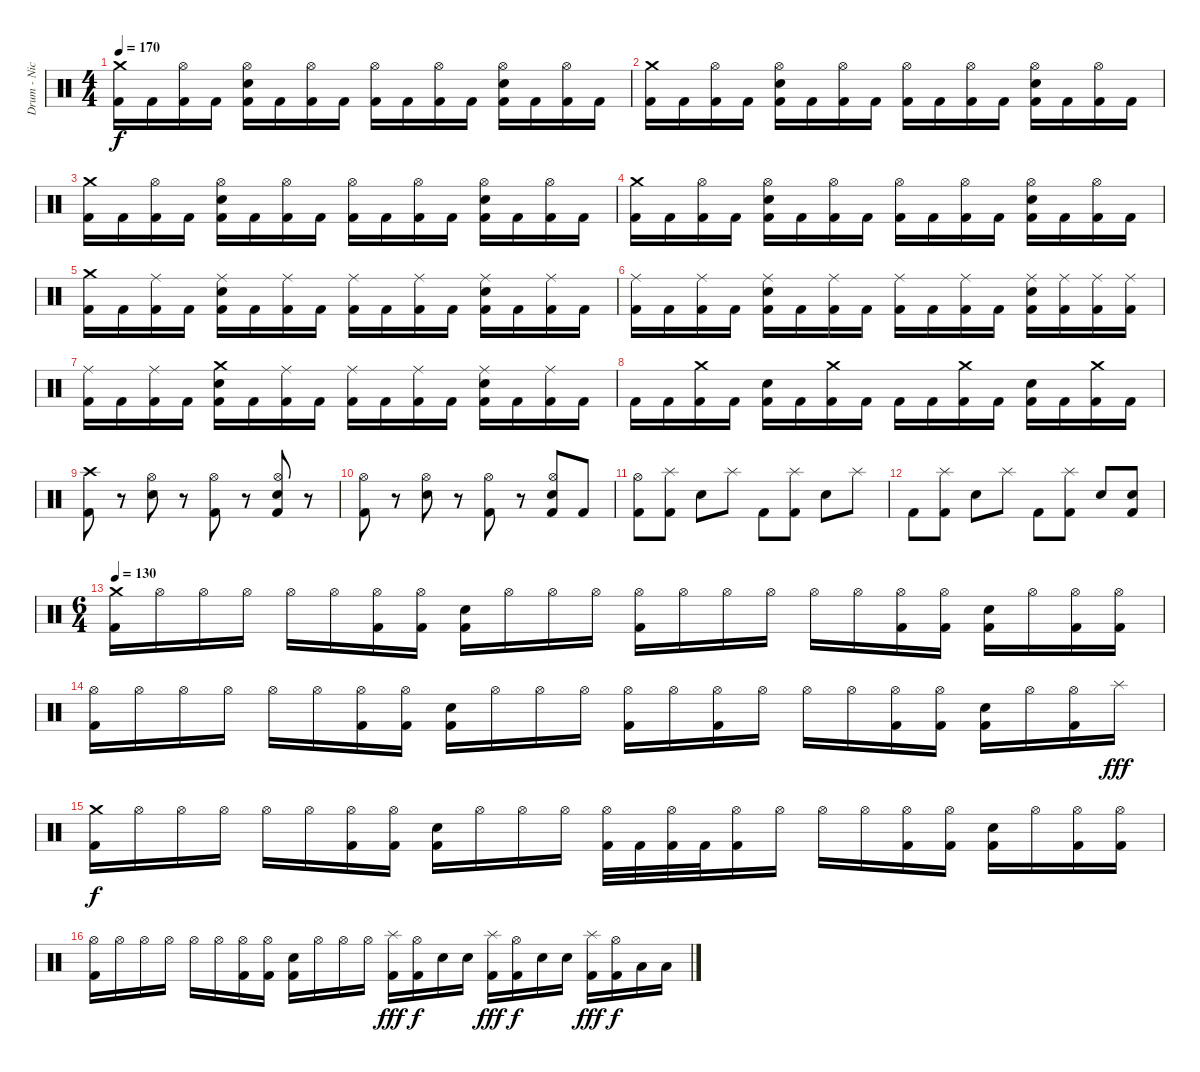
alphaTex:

\track ("Drum - Nicholas" "Drum - Nic") {instrument percussion}
\staff {score}
\articulation defaults
\ts (4 4)
\tempo 170
\clef neutral
\ks c
("Crash medium (hit)" "Kick (hit) 2").16{dy f} "Kick (hit) 2".16 ("Hi-Hat (open)" "Kick (hit) 2").16 "Kick (hit) 2".16 ("Hi-Hat (open)" "Snare (hit) 2" "Kick (hit) 2").16 "Kick (hit) 2".16 ("Hi-Hat (open)" "Kick (hit) 2").16 "Kick (hit) 2".16 ("Hi-Hat (open)" "Kick (hit) 2").16 "Kick (hit) 2".16 ("Hi-Hat (open)" "Kick (hit) 2").16 "Kick (hit) 2".16 ("Hi-Hat (open)" "Snare (hit) 2" "Kick (hit) 2").16 "Kick (hit) 2".16 ("Hi-Hat (open)" "Kick (hit) 2").16 "Kick (hit) 2".16 |
("Crash medium (hit)" "Kick (hit) 2").16 "Kick (hit) 2".16 ("Hi-Hat (open)" "Kick (hit) 2").16 "Kick (hit) 2".16 ("Hi-Hat (open)" "Snare (hit) 2" "Kick (hit) 2").16 "Kick (hit) 2".16 ("Hi-Hat (open)" "Kick (hit) 2").16 "Kick (hit) 2".16 ("Hi-Hat (open)" "Kick (hit) 2").16 "Kick (hit) 2".16 ("Hi-Hat (open)" "Kick (hit) 2").16 "Kick (hit) 2".16 ("Hi-Hat (open)" "Snare (hit) 2" "Kick (hit) 2").16 "Kick (hit) 2".16 ("Hi-Hat (open)" "Kick (hit) 2").16 "Kick (hit) 2".16 |
("Crash medium (hit)" "Kick (hit) 2").16 "Kick (hit) 2".16 ("Hi-Hat (open)" "Kick (hit) 2").16 "Kick (hit) 2".16 ("Hi-Hat (open)" "Snare (hit) 2" "Kick (hit) 2").16 "Kick (hit) 2".16 ("Hi-Hat (open)" "Kick (hit) 2").16 "Kick (hit) 2".16 ("Hi-Hat (open)" "Kick (hit) 2").16 "Kick (hit) 2".16 ("Hi-Hat (open)" "Kick (hit) 2").16 "Kick (hit) 2".16 ("Hi-Hat (open)" "Snare (hit) 2" "Kick (hit) 2").16 "Kick (hit) 2".16 ("Hi-Hat (open)" "Kick (hit) 2").16 "Kick (hit) 2".16 |
("Crash medium (hit)" "Kick (hit) 2").16 "Kick (hit) 2".16 ("Hi-Hat (open)" "Kick (hit) 2").16 "Kick (hit) 2".16 ("Hi-Hat (open)" "Snare (hit) 2" "Kick (hit) 2").16 "Kick (hit) 2".16 ("Hi-Hat (open)" "Kick (hit) 2").16 "Kick (hit) 2".16 ("Hi-Hat (open)" "Kick (hit) 2").16 "Kick (hit) 2".16 ("Hi-Hat (open)" "Kick (hit) 2").16 "Kick (hit) 2".16 ("Hi-Hat (open)" "Snare (hit) 2" "Kick (hit) 2").16 "Kick (hit) 2".16 ("Hi-Hat (open)" "Kick (hit) 2").16 "Kick (hit) 2".16 |
("Crash medium (hit)" "Kick (hit) 2").16 "Kick (hit) 2".16 ("Ride (middle)" "Kick (hit) 2").16 "Kick (hit) 2".16 ("Ride (middle)" "Snare (hit) 2" "Kick (hit) 2").16 "Kick (hit) 2".16 ("Ride (middle)" "Kick (hit) 2").16 "Kick (hit) 2".16 ("Ride (middle)" "Kick (hit) 2").16 "Kick (hit) 2".16 ("Ride (middle)" "Kick (hit) 2").16 "Kick (hit) 2".16 ("Ride (middle)" "Snare (hit) 2" "Kick (hit) 2").16 "Kick (hit) 2".16 ("Ride (middle)" "Kick (hit) 2").16 "Kick (hit) 2".16 |
("Ride (middle)" "Kick (hit) 2").16 "Kick (hit) 2".16 ("Ride (middle)" "Kick (hit) 2").16 "Kick (hit) 2".16 ("Ride (middle)" "Snare (hit) 2" "Kick (hit) 2").16 "Kick (hit) 2".16 ("Ride (middle)" "Kick (hit) 2").16 "Kick (hit) 2".16 ("Ride (middle)" "Kick (hit) 2").16 "Kick (hit) 2".16 ("Ride (middle)" "Kick (hit) 2").16 "Kick (hit) 2".16 ("Ride (middle)" "Snare (hit) 2" "Kick (hit) 2").16 ("Ride (middle)" "Kick (hit) 2").16 ("Ride (middle)" "Kick (hit) 2").16 ("Ride (middle)" "Kick (hit) 2").16 |
("Ride (middle)" "Kick (hit) 2").16 "Kick (hit) 2".16 ("Ride (middle)" "Kick (hit) 2").16 "Kick (hit) 2".16 ("Crash medium (hit)" "Snare (hit) 2" "Kick (hit) 2").16 "Kick (hit) 2".16 ("Ride (middle)" "Kick (hit) 2").16 "Kick (hit) 2".16 ("Ride (middle)" "Kick (hit) 2").16 "Kick (hit) 2".16 ("Ride (middle)" "Kick (hit) 2").16 "Kick (hit) 2".16 ("Ride (middle)" "Snare (hit) 2" "Kick (hit) 2").16 "Kick (hit) 2".16 ("Ride (middle)" "Kick (hit) 2").16 "Kick (hit) 2".16 |
"Kick (hit) 2".16 "Kick (hit) 2".16 ("Crash medium (hit)" "Kick (hit) 2").16 "Kick (hit) 2".16 ("Snare (hit) 2" "Kick (hit) 2").16 "Kick (hit) 2".16 ("Crash medium (hit)" "Kick (hit) 2").16 "Kick (hit) 2".16 "Kick (hit) 2".16 "Kick (hit) 2".16 ("Crash medium (hit)" "Kick (hit) 2").16 "Kick (hit) 2".16 ("Snare (hit) 2" "Kick (hit) 2").16 "Kick (hit) 2".16 ("Crash medium (hit)" "Kick (hit) 2").16 "Kick (hit) 2".16 |
("Crash high (hit)" "Kick (hit) 2").8 r.8 ("Hi-Hat (open)" "Snare (hit) 2").8 r.8 ("Hi-Hat (open)" "Kick (hit) 2").8 r.8 ("Hi-Hat (open)" "Snare (hit) 2" "Kick (hit) 2").8 r.8 |
("Hi-Hat (open)" "Kick (hit) 2").8 r.8 ("Hi-Hat (open)" "Snare (hit) 2").8 r.8 ("Hi-Hat (open)" "Kick (hit) 2").8 r.8 ("Hi-Hat (open)" "Snare (hit) 2" "Kick (hit) 2").8 "Kick (hit) 2".8 |
("Hi-Hat (open)" "Kick (hit) 2").8 ("Splash (hit)" "Kick (hit) 2").8 "Snare (hit) 2".8 "Splash (hit)".8 "Kick (hit) 2".8 ("Splash (hit)" "Kick (hit) 2").8 "Snare (hit) 2".8 "Splash (hit)".8 |
"Kick (hit) 2".8 ("Splash (hit)" "Kick (hit) 2").8 "Snare (hit) 2".8 "Splash (hit)".8 "Kick (hit) 2".8 ("Splash (hit)" "Kick (hit) 2").8 "Snare (hit) 2".8 ("Snare (hit)" "Kick (hit) 2").8 |
\ts (6 4)
\tempo 130
("Crash medium (hit)" "Kick (hit) 2").16 "Hi-Hat (open)".16 "Hi-Hat (open)".16 "Hi-Hat (open)".16 "Hi-Hat (open)".16 "Hi-Hat (open)".16 ("Hi-Hat (open)" "Kick (hit) 2").16 ("Hi-Hat (open)" "Kick (hit) 2").16 ("Snare (hit) 2" "Kick (hit) 2").16 "Hi-Hat (open)".16 "Hi-Hat (open)".16 "Hi-Hat (open)".16 ("Hi-Hat (open)" "Kick (hit) 2").16 "Hi-Hat (open)".16 "Hi-Hat (open)".16 "Hi-Hat (open)".16 "Hi-Hat (open)".16 "Hi-Hat (open)".16 ("Hi-Hat (open)" "Kick (hit) 2").16 ("Hi-Hat (open)" "Kick (hit) 2").16 ("Snare (hit) 2" "Kick (hit) 2").16 "Hi-Hat (open)".16 ("Hi-Hat (open)" "Kick (hit) 2").16 ("Hi-Hat (open)" "Kick (hit) 2").16 |
("Hi-Hat (open)" "Kick (hit) 2").16 "Hi-Hat (open)".16 "Hi-Hat (open)".16 "Hi-Hat (open)".16 "Hi-Hat (open)".16 "Hi-Hat (open)".16 ("Hi-Hat (open)" "Kick (hit) 2").16 ("Hi-Hat (open)" "Kick (hit) 2").16 ("Snare (hit) 2" "Kick (hit) 2").16 "Hi-Hat (open)".16 "Hi-Hat (open)".16 "Hi-Hat (open)".16 ("Hi-Hat (open)" "Kick (hit) 2").16 "Hi-Hat (open)".16 ("Hi-Hat (open)" "Kick (hit) 2").16 "Hi-Hat (open)".16 "Hi-Hat (open)".16 "Hi-Hat (open)".16 ("Hi-Hat (open)" "Kick (hit) 2").16 ("Hi-Hat (open)" "Kick (hit) 2").16 ("Snare (hit) 2" "Kick (hit) 2").16 "Hi-Hat (open)".16 ("Hi-Hat (open)" "Kick (hit) 2").16 "Splash (hit)".16{dy fff} |
("Crash medium (hit)" "Kick (hit) 2").16{dy f} "Hi-Hat (open)".16 "Hi-Hat (open)".16 "Hi-Hat (open)".16 "Hi-Hat (open)".16 "Hi-Hat (open)".16 ("Hi-Hat (open)" "Kick (hit) 2").16 ("Hi-Hat (open)" "Kick (hit) 2").16 ("Snare (hit) 2" "Kick (hit) 2").16 "Hi-Hat (open)".16 "Hi-Hat (open)".16 "Hi-Hat (open)".16 ("Hi-Hat (open)" "Kick (hit) 2").32 "Kick (hit) 2".32 ("Hi-Hat (open)" "Kick (hit) 2").32 "Kick (hit) 2".32 ("Hi-Hat (open)" "Kick (hit) 2").16 "Hi-Hat (open)".16 "Hi-Hat (open)".16 "Hi-Hat (open)".16 ("Hi-Hat (open)" "Kick (hit) 2").16 ("Hi-Hat (open)" "Kick (hit) 2").16 ("Snare (hit) 2" "Kick (hit) 2").16 "Hi-Hat (open)".16 ("Hi-Hat (open)" "Kick (hit) 2").16 ("Hi-Hat (open)" "Kick (hit) 2").16 |
("Hi-Hat (open)" "Kick (hit) 2").16 "Hi-Hat (open)".16 "Hi-Hat (open)".16 "Hi-Hat (open)".16 "Hi-Hat (open)".16 "Hi-Hat (open)".16 ("Hi-Hat (open)" "Kick (hit) 2").16 ("Hi-Hat (open)" "Kick (hit) 2").16 ("Snare (hit) 2" "Kick (hit) 2").16 "Hi-Hat (open)".16 "Hi-Hat (open)".16 "Hi-Hat (open)".16 ("Splash (hit)" "Kick (hit) 2").16{dy fff} ("Hi-Hat (open)" "Kick (hit) 2").16{dy f} "Snare (hit) 2".16 "Snare (hit) 2".16 ("Splash (hit)" "Kick (hit) 2").16{dy fff} ("Hi-Hat (open)" "Kick (hit) 2").16{dy f} "Snare (hit) 2".16 "Snare (hit) 2".16 ("Splash (hit)" "Kick (hit) 2").16{dy fff} ("Hi-Hat (open)" "Kick (hit) 2").16{dy f} "Low Tom (hit)".16 "Low Tom (hit)".16
